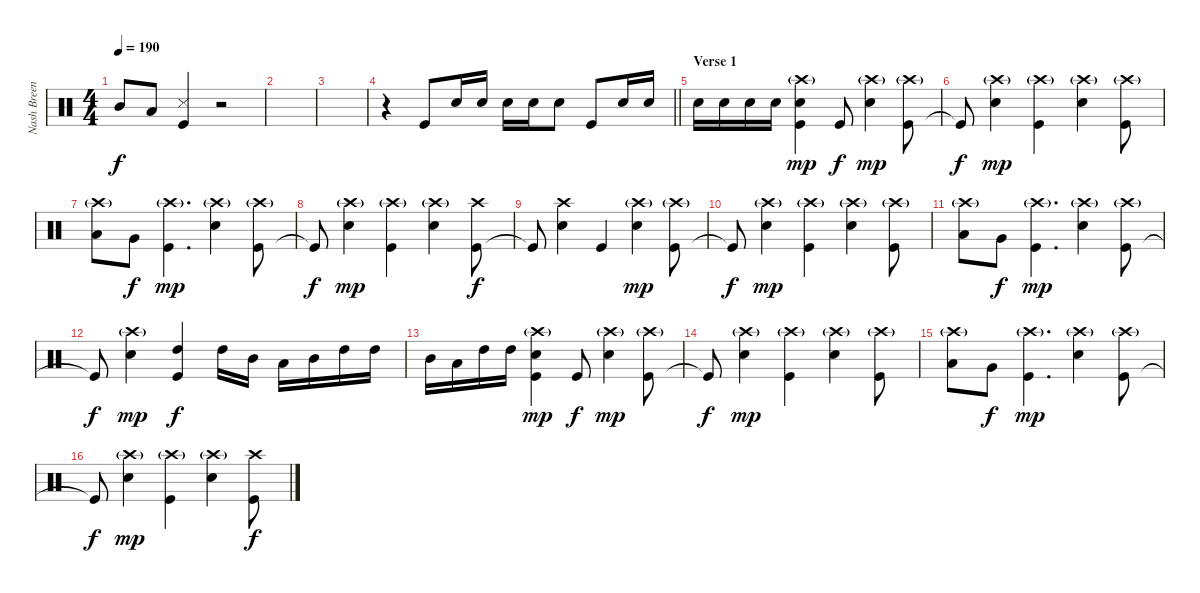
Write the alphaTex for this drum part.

\track ("Nash Breen (Percussion)" "Nash Breen") {instrument percussion}
\staff {score}
\articulation defaults
\ts (4 4)
\tempo 190
\clef neutral
\ks c "Mid Tom (hit)".8{dy f} "Low Tom (hit)".8
("Kick (hit)" "Snare (side stick) 3").4 r.2 |
|
|
\barLineRight lightlight
r.4 "Kick (hit)".8 "Electric Snare (hit)".16 "Electric Snare (hit)".16 "Electric Snare (hit)".16 "Electric Snare (hit)".16 "Electric Snare (hit)".8 "Kick (hit)".8 "Electric Snare (hit)".16 "Electric Snare (hit)".16 |
\section ("" "Verse 1")
"Electric Snare (hit)".16 "Electric Snare (hit)".16 "Electric Snare (hit)".16 "Electric Snare (hit)".16 ("Crash high (hit)"{g} "Kick (hit)" "Electric Snare (hit)").4{dy mp} "Kick (hit)".8{dy f} ("Electric Snare (hit)" "Crash high (hit)"{g}).4{dy mp} ("Kick (hit)" "Crash high (hit)"{g}).8 |
"Kick (hit)"{t}.8{dy f} ("Electric Snare (hit)" "Crash high (hit)"{g}).4{dy mp} ("Kick (hit)" "Crash high (hit)"{g}).4 ("Electric Snare (hit)" "Crash high (hit)"{g}).4 ("Kick (hit)" "Crash high (hit)"{g}).8 |
("Low Tom (hit)" "Crash high (hit)"{g}).8 "Very Low Tom (hit)".8{dy f} ("Kick (hit)" "Crash high (hit)"{g}).4{d dy mp} ("Electric Snare (hit)" "Crash high (hit)"{g}).4 ("Kick (hit)" "Crash high (hit)"{g}).8 |
"Kick (hit)"{t}.8{dy f} ("Electric Snare (hit)" "Crash high (hit)"{g}).4{dy mp} ("Kick (hit)" "Crash high (hit)"{g}).4 ("Electric Snare (hit)" "Crash high (hit)"{g}).4 ("Kick (hit)" "Crash high (hit)").8{dy f} |
"Kick (hit)"{t}.8 ("Electric Snare (hit)" "Crash high (hit)").4 "Kick (hit)".4 ("Electric Snare (hit)" "Crash high (hit)"{g}).4{dy mp} ("Kick (hit)" "Crash high (hit)"{g}).8 |
"Kick (hit)"{t}.8{dy f} ("Electric Snare (hit)" "Crash high (hit)"{g}).4{dy mp} ("Kick (hit)" "Crash high (hit)"{g}).4 ("Electric Snare (hit)" "Crash high (hit)"{g}).4 ("Kick (hit)" "Crash high (hit)"{g}).8 |
("Low Tom (hit)" "Crash high (hit)"{g}).8 "Very Low Tom (hit)".8{dy f} ("Kick (hit)" "Crash high (hit)"{g}).4{d dy mp} ("Electric Snare (hit)" "Crash high (hit)"{g}).4 ("Kick (hit)" "Crash high (hit)"{g}).8 |
"Kick (hit)"{t}.8{dy f} ("Electric Snare (hit)" "Crash high (hit)"{g}).4{dy mp} ("High Tom (hit)" "Kick (hit)").4{dy f} "High Tom (hit)".16 "Mid Tom (hit)".16 "Low Tom (hit)".16 "Mid Tom (hit)".16 "High Tom (hit)".16 "High Tom (hit)".16 |
"Mid Tom (hit)".16 "Low Tom (hit)".16 "High Tom (hit)".16 "High Tom (hit)".16 ("Crash high (hit)"{g} "Kick (hit)" "Electric Snare (hit)").4{dy mp} "Kick (hit)".8{dy f} ("Electric Snare (hit)" "Crash high (hit)"{g}).4{dy mp} ("Kick (hit)" "Crash high (hit)"{g}).8 |
"Kick (hit)"{t}.8{dy f} ("Electric Snare (hit)" "Crash high (hit)"{g}).4{dy mp} ("Kick (hit)" "Crash high (hit)"{g}).4 ("Electric Snare (hit)" "Crash high (hit)"{g}).4 ("Kick (hit)" "Crash high (hit)"{g}).8 |
("Low Tom (hit)" "Crash high (hit)"{g}).8 "Very Low Tom (hit)".8{dy f} ("Kick (hit)" "Crash high (hit)"{g}).4{d dy mp} ("Electric Snare (hit)" "Crash high (hit)"{g}).4 ("Kick (hit)" "Crash high (hit)"{g}).8 |
"Kick (hit)"{t}.8{dy f} ("Electric Snare (hit)" "Crash high (hit)"{g}).4{dy mp} ("Kick (hit)" "Crash high (hit)"{g}).4 ("Electric Snare (hit)" "Crash high (hit)"{g}).4 ("Kick (hit)" "Crash high (hit)").8{dy f}
